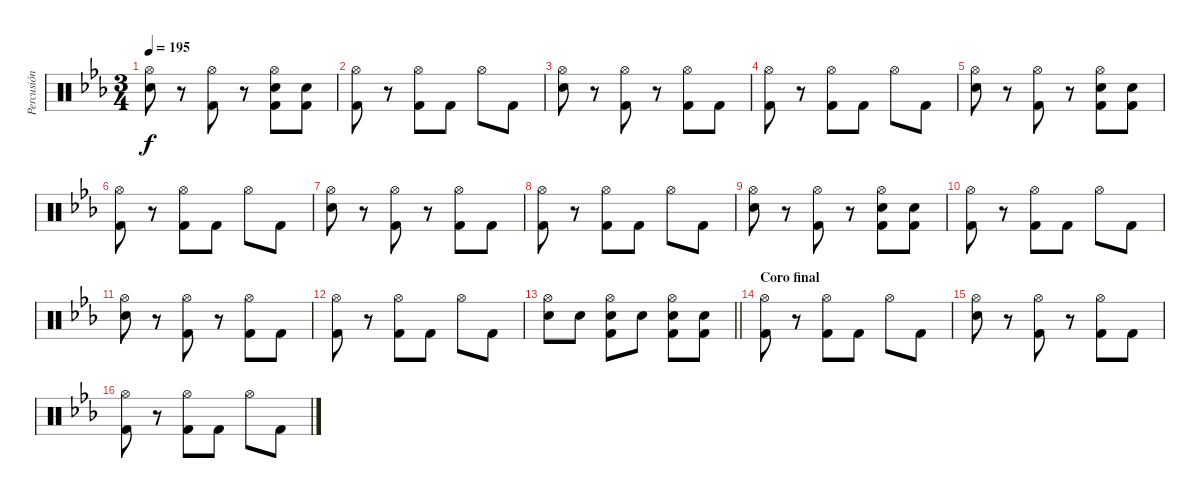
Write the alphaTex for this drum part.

\track ("Percusión" "Percusión") {instrument percussion}
\staff {score}
\articulation defaults
\ts (3 4)
\tempo 195
\clef neutral
\ks eb
("Hi-Hat (open)" "Snare (hit) 2").8{dy f} r.8 ("Hi-Hat (open)" "Kick (hit) 2").8 r.8 ("Hi-Hat (open)" "Snare (hit) 2" "Kick (hit) 2").8 ("Snare (hit) 2" "Kick (hit) 2").8 |
("Hi-Hat (open)" "Kick (hit) 2").8 r.8 ("Hi-Hat (open)" "Kick (hit) 2").8 "Kick (hit) 2".8 "Hi-Hat (open)".8 "Kick (hit) 2".8 |
("Hi-Hat (open)" "Snare (hit) 2").8 r.8 ("Hi-Hat (open)" "Kick (hit) 2").8 r.8 ("Hi-Hat (open)" "Kick (hit) 2").8 "Kick (hit) 2".8 |
("Hi-Hat (open)" "Kick (hit) 2").8 r.8 ("Hi-Hat (open)" "Kick (hit) 2").8 "Kick (hit) 2".8 "Hi-Hat (open)".8 "Kick (hit) 2".8 |
("Hi-Hat (open)" "Snare (hit) 2").8 r.8 ("Hi-Hat (open)" "Kick (hit) 2").8 r.8 ("Hi-Hat (open)" "Snare (hit) 2" "Kick (hit) 2").8 ("Snare (hit) 2" "Kick (hit) 2").8 |
("Hi-Hat (open)" "Kick (hit) 2").8 r.8 ("Hi-Hat (open)" "Kick (hit) 2").8 "Kick (hit) 2".8 "Hi-Hat (open)".8 "Kick (hit) 2".8 |
("Hi-Hat (open)" "Snare (hit) 2").8 r.8 ("Hi-Hat (open)" "Kick (hit) 2").8 r.8 ("Hi-Hat (open)" "Kick (hit) 2").8 "Kick (hit) 2".8 |
("Hi-Hat (open)" "Kick (hit) 2").8 r.8 ("Hi-Hat (open)" "Kick (hit) 2").8 "Kick (hit) 2".8 "Hi-Hat (open)".8 "Kick (hit) 2".8 |
("Hi-Hat (open)" "Snare (hit) 2").8 r.8 ("Hi-Hat (open)" "Kick (hit) 2").8 r.8 ("Hi-Hat (open)" "Snare (hit) 2" "Kick (hit) 2").8 ("Snare (hit) 2" "Kick (hit) 2").8 |
("Hi-Hat (open)" "Kick (hit) 2").8 r.8 ("Hi-Hat (open)" "Kick (hit) 2").8 "Kick (hit) 2".8 "Hi-Hat (open)".8 "Kick (hit) 2".8 |
("Hi-Hat (open)" "Snare (hit) 2").8 r.8 ("Hi-Hat (open)" "Kick (hit) 2").8 r.8 ("Hi-Hat (open)" "Kick (hit) 2").8 "Kick (hit) 2".8 |
("Hi-Hat (open)" "Kick (hit) 2").8 r.8 ("Hi-Hat (open)" "Kick (hit) 2").8 "Kick (hit) 2".8 "Hi-Hat (open)".8 "Kick (hit) 2".8 |
\barLineRight lightlight
("Hi-Hat (open)" "Snare (hit) 2").8 "Snare (hit) 2".8 ("Hi-Hat (open)" "Snare (hit) 2" "Kick (hit) 2").8 "Snare (hit) 2".8 ("Hi-Hat (open)" "Snare (hit) 2" "Kick (hit) 2").8 ("Snare (hit) 2" "Kick (hit) 2").8 |
\section ("" "Coro final")
("Hi-Hat (open)" "Kick (hit) 2").8 r.8 ("Hi-Hat (open)" "Kick (hit) 2").8 "Kick (hit) 2".8 "Hi-Hat (open)".8 "Kick (hit) 2".8 |
("Hi-Hat (open)" "Snare (hit) 2").8 r.8 ("Hi-Hat (open)" "Kick (hit) 2").8 r.8 ("Hi-Hat (open)" "Kick (hit) 2").8 "Kick (hit) 2".8 |
("Hi-Hat (open)" "Kick (hit) 2").8 r.8 ("Hi-Hat (open)" "Kick (hit) 2").8 "Kick (hit) 2".8 "Hi-Hat (open)".8 "Kick (hit) 2".8
